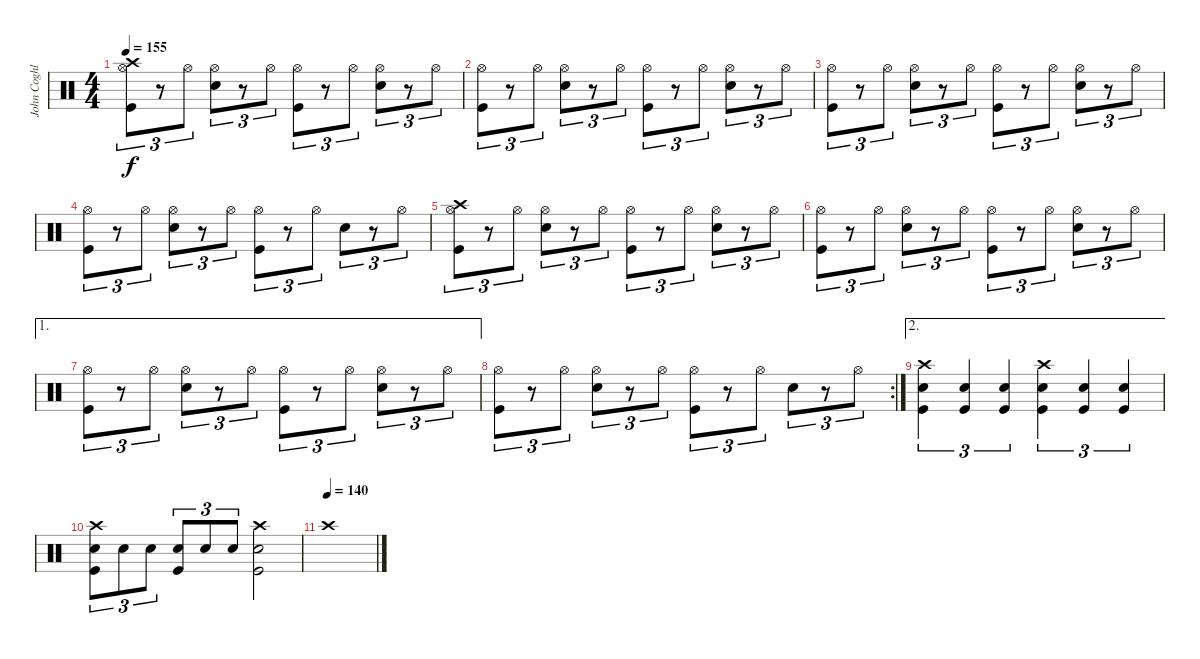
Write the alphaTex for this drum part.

\track ("John Coghlan" "John Coghl") {instrument percussion}
\staff {score}
\articulation defaults
\ts (4 4)
\tempo 155
\clef neutral
\ks c
("Crash high (hit)" "Hi-Hat (open)" "Kick (hit)").8{tu (3 2) dy f} r.8{tu (3 2)} "Hi-Hat (open)".8{tu (3 2)} ("Electric Snare (hit)" "Hi-Hat (open)").8{tu (3 2)} r.8{tu (3 2)} "Hi-Hat (open)".8{tu (3 2)} ("Hi-Hat (open)" "Kick (hit)").8{tu (3 2)} r.8{tu (3 2)} "Hi-Hat (open)".8{tu (3 2)} ("Electric Snare (hit)" "Hi-Hat (open)").8{tu (3 2)} r.8{tu (3 2)} "Hi-Hat (open)".8{tu (3 2)} |
("Hi-Hat (open)" "Kick (hit)").8{tu (3 2)} r.8{tu (3 2)} "Hi-Hat (open)".8{tu (3 2)} ("Electric Snare (hit)" "Hi-Hat (open)").8{tu (3 2)} r.8{tu (3 2)} "Hi-Hat (open)".8{tu (3 2)} ("Hi-Hat (open)" "Kick (hit)").8{tu (3 2)} r.8{tu (3 2)} "Hi-Hat (open)".8{tu (3 2)} ("Electric Snare (hit)" "Hi-Hat (open)").8{tu (3 2)} r.8{tu (3 2)} "Hi-Hat (open)".8{tu (3 2)} |
("Hi-Hat (open)" "Kick (hit)").8{tu (3 2)} r.8{tu (3 2)} "Hi-Hat (open)".8{tu (3 2)} ("Electric Snare (hit)" "Hi-Hat (open)").8{tu (3 2)} r.8{tu (3 2)} "Hi-Hat (open)".8{tu (3 2)} ("Hi-Hat (open)" "Kick (hit)").8{tu (3 2)} r.8{tu (3 2)} "Hi-Hat (open)".8{tu (3 2)} ("Electric Snare (hit)" "Hi-Hat (open)").8{tu (3 2)} r.8{tu (3 2)} "Hi-Hat (open)".8{tu (3 2)} |
("Hi-Hat (open)" "Kick (hit)").8{tu (3 2)} r.8{tu (3 2)} "Hi-Hat (open)".8{tu (3 2)} ("Electric Snare (hit)" "Hi-Hat (open)").8{tu (3 2)} r.8{tu (3 2)} "Hi-Hat (open)".8{tu (3 2)} ("Hi-Hat (open)" "Kick (hit)").8{tu (3 2)} r.8{tu (3 2)} "Hi-Hat (open)".8{tu (3 2)} "Electric Snare (hit)".8{tu (3 2)} r.8{tu (3 2)} "Hi-Hat (open)".8{tu (3 2)} |
("Crash high (hit)" "Hi-Hat (open)" "Kick (hit)").8{tu (3 2)} r.8{tu (3 2)} "Hi-Hat (open)".8{tu (3 2)} ("Electric Snare (hit)" "Hi-Hat (open)").8{tu (3 2)} r.8{tu (3 2)} "Hi-Hat (open)".8{tu (3 2)} ("Hi-Hat (open)" "Kick (hit)").8{tu (3 2)} r.8{tu (3 2)} "Hi-Hat (open)".8{tu (3 2)} ("Electric Snare (hit)" "Hi-Hat (open)").8{tu (3 2)} r.8{tu (3 2)} "Hi-Hat (open)".8{tu (3 2)} |
("Hi-Hat (open)" "Kick (hit)").8{tu (3 2)} r.8{tu (3 2)} "Hi-Hat (open)".8{tu (3 2)} ("Electric Snare (hit)" "Hi-Hat (open)").8{tu (3 2)} r.8{tu (3 2)} "Hi-Hat (open)".8{tu (3 2)} ("Hi-Hat (open)" "Kick (hit)").8{tu (3 2)} r.8{tu (3 2)} "Hi-Hat (open)".8{tu (3 2)} ("Electric Snare (hit)" "Hi-Hat (open)").8{tu (3 2)} r.8{tu (3 2)} "Hi-Hat (open)".8{tu (3 2)} |
\ae 1
("Hi-Hat (open)" "Kick (hit)").8{tu (3 2)} r.8{tu (3 2)} "Hi-Hat (open)".8{tu (3 2)} ("Electric Snare (hit)" "Hi-Hat (open)").8{tu (3 2)} r.8{tu (3 2)} "Hi-Hat (open)".8{tu (3 2)} ("Hi-Hat (open)" "Kick (hit)").8{tu (3 2)} r.8{tu (3 2)} "Hi-Hat (open)".8{tu (3 2)} ("Electric Snare (hit)" "Hi-Hat (open)").8{tu (3 2)} r.8{tu (3 2)} "Hi-Hat (open)".8{tu (3 2)} |
\rc 2
("Hi-Hat (open)" "Kick (hit)").8{tu (3 2)} r.8{tu (3 2)} "Hi-Hat (open)".8{tu (3 2)} ("Electric Snare (hit)" "Hi-Hat (open)").8{tu (3 2)} r.8{tu (3 2)} "Hi-Hat (open)".8{tu (3 2)} ("Hi-Hat (open)" "Kick (hit)").8{tu (3 2)} r.8{tu (3 2)} "Hi-Hat (open)".8{tu (3 2)} "Electric Snare (hit)".8{tu (3 2)} r.8{tu (3 2)} "Hi-Hat (open)".8{tu (3 2)} |
\ae 2
("Crash high (hit)" "Electric Snare (hit)" "Kick (hit)").4{tu (3 2)} ("Electric Snare (hit)" "Kick (hit)").4{tu (3 2)} ("Electric Snare (hit)" "Kick (hit)").4{tu (3 2)} ("Crash high (hit)" "Electric Snare (hit)" "Kick (hit)").4{tu (3 2)} ("Electric Snare (hit)" "Kick (hit)").4{tu (3 2)} ("Electric Snare (hit)" "Kick (hit)").4{tu (3 2)} |
("Crash high (hit)" "Electric Snare (hit)" "Kick (hit)").8{tu (3 2)} "Electric Snare (hit)".8{tu (3 2)} "Electric Snare (hit)".8{tu (3 2)} ("Electric Snare (hit)" "Kick (hit)").8{tu (3 2)} "Electric Snare (hit)".8{tu (3 2)} "Electric Snare (hit)".8{tu (3 2)} ("Crash high (hit)" "Electric Snare (hit)" "Kick (hit)").2 |
\tempo (140)
"Crash high (hit)".1
